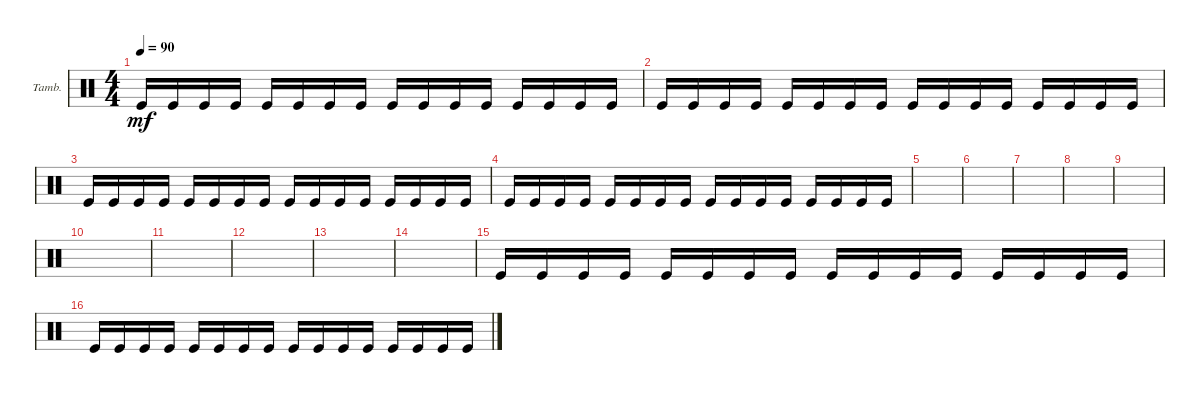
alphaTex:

\defaultSystemsLayout 4
\bracketExtendMode groupsimilarinstruments
\firstSystemTrackNameOrientation horizontal
\otherSystemsTrackNameOrientation horizontal
\track ("Tambourine" "Tamb.") {instrument percussion}
\staff {score}
\articulation defaults
\ts (4 4)
\tempo 90
\clef neutral
\ks c "Kick (hit)".16{dy mf} "Kick (hit)".16 "Kick (hit)".16 "Kick (hit)".16 "Kick (hit)".16 "Kick (hit)".16 "Kick (hit)".16 "Kick (hit)".16 "Kick (hit)".16 "Kick (hit)".16 "Kick (hit)".16 "Kick (hit)".16 "Kick (hit)".16 "Kick (hit)".16 "Kick (hit)".16 "Kick (hit)".16
|
"Kick (hit)".16 "Kick (hit)".16 "Kick (hit)".16 "Kick (hit)".16 "Kick (hit)".16 "Kick (hit)".16 "Kick (hit)".16 "Kick (hit)".16 "Kick (hit)".16 "Kick (hit)".16 "Kick (hit)".16 "Kick (hit)".16 "Kick (hit)".16 "Kick (hit)".16 "Kick (hit)".16 "Kick (hit)".16 |
"Kick (hit)".16 "Kick (hit)".16 "Kick (hit)".16 "Kick (hit)".16 "Kick (hit)".16 "Kick (hit)".16 "Kick (hit)".16 "Kick (hit)".16 "Kick (hit)".16 "Kick (hit)".16 "Kick (hit)".16 "Kick (hit)".16 "Kick (hit)".16 "Kick (hit)".16 "Kick (hit)".16 "Kick (hit)".16 |
"Kick (hit)".16 "Kick (hit)".16 "Kick (hit)".16 "Kick (hit)".16 "Kick (hit)".16 "Kick (hit)".16 "Kick (hit)".16 "Kick (hit)".16 "Kick (hit)".16 "Kick (hit)".16 "Kick (hit)".16 "Kick (hit)".16 "Kick (hit)".16 "Kick (hit)".16 "Kick (hit)".16 "Kick (hit)".16 |
|
|
|
|
|
|
|
|
|
|
"Kick (hit)".16 "Kick (hit)".16 "Kick (hit)".16 "Kick (hit)".16 "Kick (hit)".16 "Kick (hit)".16 "Kick (hit)".16 "Kick (hit)".16 "Kick (hit)".16 "Kick (hit)".16 "Kick (hit)".16 "Kick (hit)".16 "Kick (hit)".16 "Kick (hit)".16 "Kick (hit)".16 "Kick (hit)".16 |
"Kick (hit)".16 "Kick (hit)".16 "Kick (hit)".16 "Kick (hit)".16 "Kick (hit)".16 "Kick (hit)".16 "Kick (hit)".16 "Kick (hit)".16 "Kick (hit)".16 "Kick (hit)".16 "Kick (hit)".16 "Kick (hit)".16 "Kick (hit)".16 "Kick (hit)".16 "Kick (hit)".16 "Kick (hit)".16
